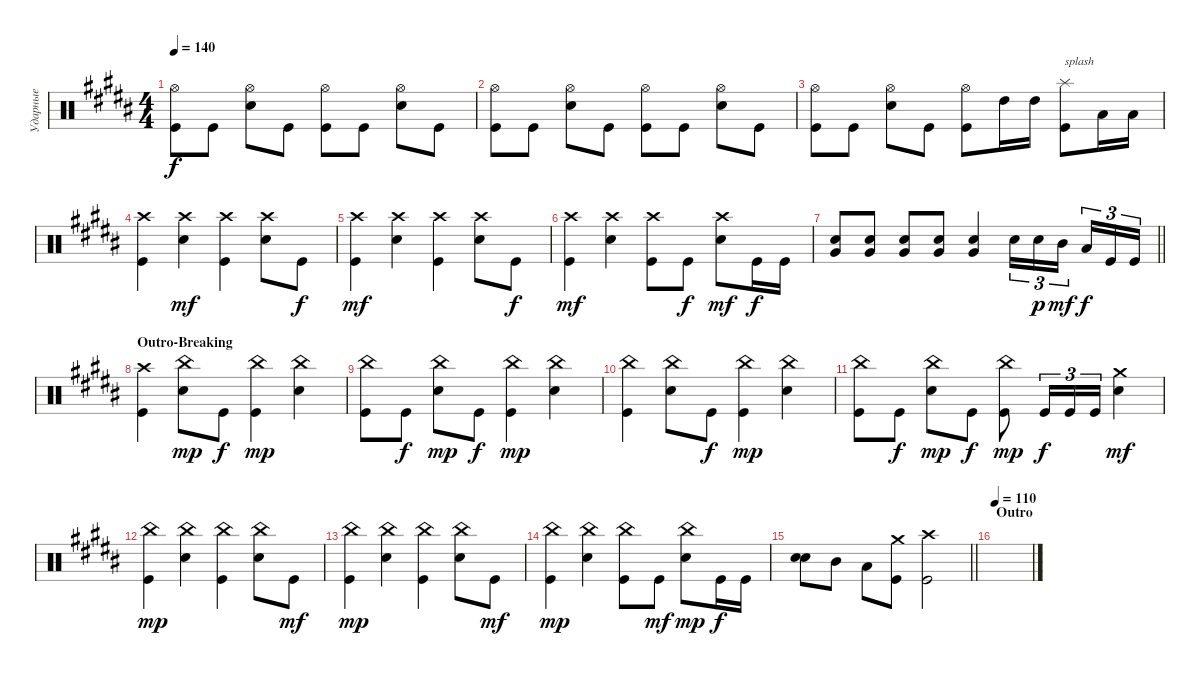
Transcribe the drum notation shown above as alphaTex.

\track ("Ударные" "Ударные") {instrument percussion}
\staff {score}
\articulation defaults
\ts (4 4)
\tempo 140
\clef neutral
\ks g#minor
("Kick (hit)" "Hi-Hat (open)").8{dy f} "Kick (hit)".8 ("Snare (hit) 2" "Hi-Hat (open)").8 "Kick (hit)".8 ("Kick (hit)" "Hi-Hat (open)").8 "Kick (hit)".8 ("Snare (hit) 2" "Hi-Hat (open)").8 "Kick (hit)".8 |
("Kick (hit)" "Hi-Hat (open)").8 "Kick (hit)".8 ("Snare (hit) 2" "Hi-Hat (open)").8 "Kick (hit)".8 ("Kick (hit)" "Hi-Hat (open)").8 "Kick (hit)".8 ("Snare (hit) 2" "Hi-Hat (open)").8 "Kick (hit)".8 |
("Kick (hit)" "Hi-Hat (open)").8 "Kick (hit)".8 ("Snare (hit) 2" "Hi-Hat (open)").8 "Kick (hit)".8 ("Kick (hit)" "Hi-Hat (open)").8 "High Tom (hit)".16 "High Tom (hit)".16 ("Kick (hit)" "Splash (hit)").8{txt "splash"} "Low Tom (hit)".16 "Low Tom (hit)".16 |
("Kick (hit)" "Crash high (hit)").4 ("Snare (hit) 2" "Crash high (hit)").4{dy mf} ("Kick (hit)" "Crash high (hit)").4 ("Snare (hit) 2" "Crash high (hit)").8 "Kick (hit)".8{dy f} |
("Kick (hit)" "Crash high (hit)").4{dy mf} ("Snare (hit) 2" "Crash high (hit)").4 ("Kick (hit)" "Crash high (hit)").4 ("Snare (hit) 2" "Crash high (hit)").8 "Kick (hit)".8{dy f} |
("Kick (hit)" "Crash high (hit)").4{dy mf} ("Snare (hit) 2" "Crash high (hit)").4 ("Kick (hit)" "Crash high (hit)").8 "Kick (hit)".8{dy f} ("Snare (hit) 2" "Crash high (hit)").8{dy mf} "Kick (hit)".16{dy f} "Kick (hit)".16 |
\barLineRight lightlight
("Very Low Tom (hit)" "Snare (hit) 2").8{bd 60} ("Very Low Tom (hit)" "Snare (hit) 2").8{bd 60} ("Very Low Tom (hit)" "Snare (hit) 2").8{bd 60} ("Very Low Tom (hit)" "Snare (hit) 2").8{bd 60} ("Very Low Tom (hit)" "Snare (hit) 2").4{bd 60} "Snare (hit) 2".16{tu (3 2)} "Snare (hit) 2".16{tu (3 2) dy p} "Mid Tom (hit)".16{tu (3 2) dy mf beam splitsecondary} "Low Tom (hit)".16{tu (3 2) dy f} "Kick (hit)".16{tu (3 2)} "Kick (hit)".16{tu (3 2)} |
\section ("" "Outro-Breaking")
("Crash high (hit)" "Kick (hit)").4 ("China (hit)" "Snare (hit) 2").8{dy mp} "Kick (hit)".8{dy f} ("Kick (hit)" "China (hit)").4{dy mp} ("China (hit)" "Snare (hit) 2").4 |
("Kick (hit)" "China (hit)").8 "Kick (hit)".8{dy f} ("China (hit)" "Snare (hit) 2").8{dy mp} "Kick (hit)".8{dy f} ("China (hit)" "Kick (hit)").4{dy mp} ("China (hit)" "Snare (hit) 2").4 |
("Kick (hit)" "China (hit)").4 ("China (hit)" "Snare (hit) 2").8 "Kick (hit)".8{dy f} ("China (hit)" "Kick (hit)").4{dy mp} ("China (hit)" "Snare (hit) 2").4 |
("Kick (hit)" "China (hit)").8 "Kick (hit)".8{dy f} ("China (hit)" "Snare (hit) 2").8{dy mp} "Kick (hit)".8{dy f} ("China (hit)" "Kick (hit)").8{dy mp} "Kick (hit)".16{tu (3 2) dy f} "Kick (hit)".16{tu (3 2)} "Kick (hit)".16{tu (3 2)} ("Crash medium (hit)" "Snare (hit) 2").4{dy mf} |
("Kick (hit)" "China (hit)").4{dy mp} ("China (hit)" "Snare (hit) 2").4 ("China (hit)" "Kick (hit)").4 ("China (hit)" "Snare (hit) 2").8 "Kick (hit)".8{dy mf} |
("Kick (hit)" "China (hit)").4{dy mp} ("China (hit)" "Snare (hit) 2").4 ("China (hit)" "Kick (hit)").4 ("China (hit)" "Snare (hit) 2").8 "Kick (hit)".8{dy mf} |
("Kick (hit)" "China (hit)").4{dy mp} ("China (hit)" "Snare (hit) 2").4 ("China (hit)" "Kick (hit)").8 "Kick (hit)".8{dy mf} ("China (hit)" "Snare (hit) 2").8{dy mp} "Kick (hit)".16{dy f} "Kick (hit)".16 |
\barLineRight lightlight
("Snare (hit) 2" "Snare (hit) 2").8 "Mid Tom (hit)".8 "Low Tom (hit)".8 ("Kick (hit)" "Crash medium (hit)").8 ("Kick (hit)" "Crash high (hit)").2 |
\section ("" "Outro")
\tempo 110
